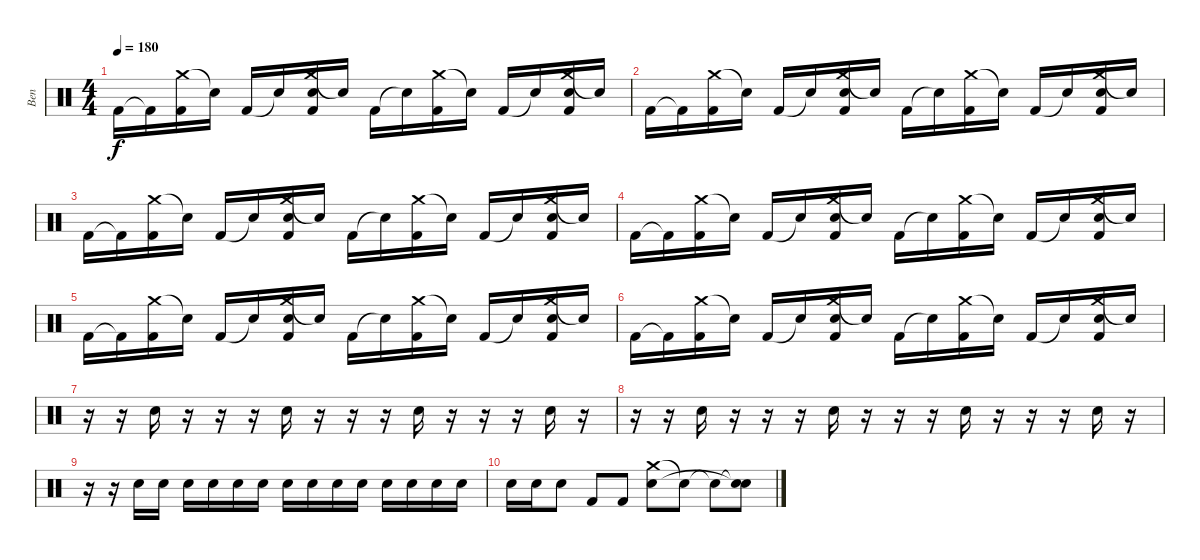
\track ("Ben" "Ben") {instrument percussion}
\staff {score}
\articulation defaults
\ts (4 4)
\tempo 180
\clef neutral
\ks c "Kick (hit) 2".16{dy f} "Kick (hit) 2"{t}.16
("Crash medium (hit)" "Kick (hit) 2").16 "Snare (hit)"{t}.16 "Kick (hit) 2".16 "Snare (hit)"{t}.16 ("Crash medium (hit)" "Electric Snare (hit)" "Kick (hit) 2").16 "Snare (hit)"{t}.16 "Kick (hit) 2".16 "Snare (hit)"{t}.16 ("Crash medium (hit)" "Kick (hit) 2").16 "Snare (hit)"{t}.16 "Kick (hit) 2".16 "Snare (hit)"{t}.16 ("Crash medium (hit)" "Electric Snare (hit)" "Kick (hit) 2").16 "Snare (hit)"{t}.16 |
"Kick (hit) 2".16 "Kick (hit) 2"{t}.16 ("Crash medium (hit)" "Kick (hit) 2").16 "Snare (hit)"{t}.16 "Kick (hit) 2".16 "Snare (hit)"{t}.16 ("Crash medium (hit)" "Electric Snare (hit)" "Kick (hit) 2").16 "Snare (hit)"{t}.16 "Kick (hit) 2".16 "Snare (hit)"{t}.16 ("Crash medium (hit)" "Kick (hit) 2").16 "Snare (hit)"{t}.16 "Kick (hit) 2".16 "Snare (hit)"{t}.16 ("Crash medium (hit)" "Electric Snare (hit)" "Kick (hit) 2").16 "Snare (hit)"{t}.16 |
"Kick (hit) 2".16 "Kick (hit) 2"{t}.16 ("Crash medium (hit)" "Kick (hit) 2").16 "Snare (hit)"{t}.16 "Kick (hit) 2".16 "Snare (hit)"{t}.16 ("Crash medium (hit)" "Electric Snare (hit)" "Kick (hit) 2").16 "Snare (hit)"{t}.16 "Kick (hit) 2".16 "Snare (hit)"{t}.16 ("Crash medium (hit)" "Kick (hit) 2").16 "Snare (hit)"{t}.16 "Kick (hit) 2".16 "Snare (hit)"{t}.16 ("Crash medium (hit)" "Electric Snare (hit)" "Kick (hit) 2").16 "Snare (hit)"{t}.16 |
"Kick (hit) 2".16 "Kick (hit) 2"{t}.16 ("Crash medium (hit)" "Kick (hit) 2").16 "Snare (hit)"{t}.16 "Kick (hit) 2".16 "Snare (hit)"{t}.16 ("Crash medium (hit)" "Electric Snare (hit)" "Kick (hit) 2").16 "Snare (hit)"{t}.16 "Kick (hit) 2".16 "Snare (hit)"{t}.16 ("Crash medium (hit)" "Kick (hit) 2").16 "Snare (hit)"{t}.16 "Kick (hit) 2".16 "Snare (hit)"{t}.16 ("Crash medium (hit)" "Electric Snare (hit)" "Kick (hit) 2").16 "Snare (hit)"{t}.16 |
"Kick (hit) 2".16 "Kick (hit) 2"{t}.16 ("Crash medium (hit)" "Kick (hit) 2").16 "Snare (hit)"{t}.16 "Kick (hit) 2".16 "Snare (hit)"{t}.16 ("Crash medium (hit)" "Electric Snare (hit)" "Kick (hit) 2").16 "Snare (hit)"{t}.16 "Kick (hit) 2".16 "Snare (hit)"{t}.16 ("Crash medium (hit)" "Kick (hit) 2").16 "Snare (hit)"{t}.16 "Kick (hit) 2".16 "Snare (hit)"{t}.16 ("Crash medium (hit)" "Electric Snare (hit)" "Kick (hit) 2").16 "Snare (hit)"{t}.16 |
"Kick (hit) 2".16 "Kick (hit) 2"{t}.16 ("Crash medium (hit)" "Kick (hit) 2").16 "Snare (hit)"{t}.16 "Kick (hit) 2".16 "Snare (hit)"{t}.16 ("Crash medium (hit)" "Electric Snare (hit)" "Kick (hit) 2").16 "Snare (hit)"{t}.16 "Kick (hit) 2".16 "Snare (hit)"{t}.16 ("Crash medium (hit)" "Kick (hit) 2").16 "Snare (hit)"{t}.16 "Kick (hit) 2".16 "Snare (hit)"{t}.16 ("Crash medium (hit)" "Electric Snare (hit)" "Kick (hit) 2").16 "Snare (hit)"{t}.16 |
r.16 r.16 "Electric Snare (hit)".16 r.16 r.16 r.16 "Electric Snare (hit)".16 r.16 r.16 r.16 "Electric Snare (hit)".16 r.16 r.16 r.16 "Electric Snare (hit)".16 r.16 |
r.16 r.16 "Electric Snare (hit)".16 r.16 r.16 r.16 "Electric Snare (hit)".16 r.16 r.16 r.16 "Electric Snare (hit)".16 r.16 r.16 r.16 "Electric Snare (hit)".16 r.16 |
r.16 r.16 "Electric Snare (hit)".16 "Electric Snare (hit)".16 "Electric Snare (hit)".16 "Electric Snare (hit)".16 "Electric Snare (hit)".16 "Electric Snare (hit)".16 "Electric Snare (hit)".16 "Electric Snare (hit)".16 "Electric Snare (hit)".16 "Electric Snare (hit)".16 "Electric Snare (hit)".16 "Electric Snare (hit)".16 "Electric Snare (hit)".16 "Electric Snare (hit)".16 |
"Electric Snare (hit)".16 "Electric Snare (hit)".16 "Electric Snare (hit)".8 "Kick (hit) 2".8 "Kick (hit) 2".8 ("Crash medium (hit)" "Electric Snare (hit)").8 "Snare (hit)"{t}.8 "Snare (hit)"{t}.8 ("Snare (hit)"{t} "Snare (hit)"{t}).8
